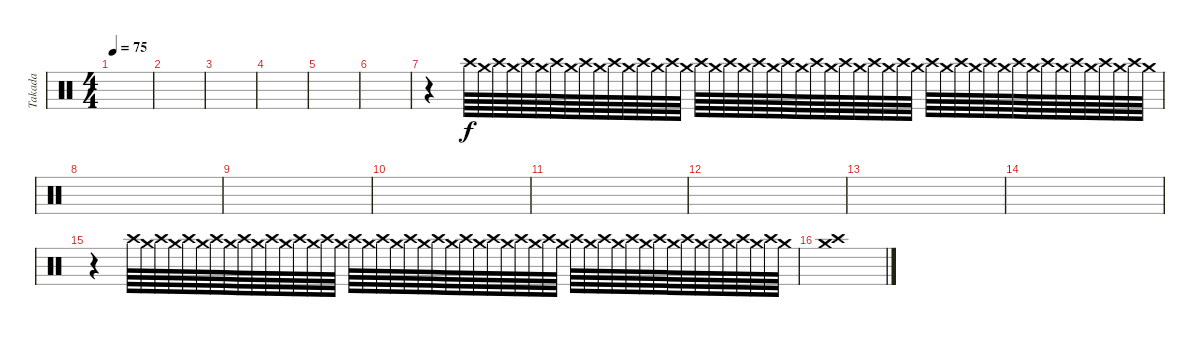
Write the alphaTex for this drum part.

\track ("Takada" "Takada") {instrument percussion}
\staff {score}
\articulation defaults
\ts (4 4)
\tempo 75
\clef neutral
\ks c
|
|
|
|
|
|
r.4{volume 0} "Crash high (hit)".64{volume 8} "Crash medium (hit)".64 "Crash high (hit)".64 "Crash medium (hit)".64 "Crash high (hit)".64 "Crash medium (hit)".64 "Crash high (hit)".64 "Crash medium (hit)".64 "Crash high (hit)".64 "Crash medium (hit)".64 "Crash high (hit)".64 "Crash medium (hit)".64 "Crash high (hit)".64 "Crash medium (hit)".64 "Crash high (hit)".64 "Crash medium (hit)".64 "Crash high (hit)".64 "Crash medium (hit)".64 "Crash high (hit)".64 "Crash medium (hit)".64 "Crash high (hit)".64 "Crash medium (hit)".64 "Crash high (hit)".64 "Crash medium (hit)".64 "Crash high (hit)".64 "Crash medium (hit)".64 "Crash high (hit)".64 "Crash medium (hit)".64 "Crash high (hit)".64 "Crash medium (hit)".64 "Crash high (hit)".64 "Crash medium (hit)".64 "Crash high (hit)".64 "Crash medium (hit)".64 "Crash high (hit)".64 "Crash medium (hit)".64 "Crash high (hit)".64 "Crash medium (hit)".64 "Crash high (hit)".64 "Crash medium (hit)".64 "Crash high (hit)".64 "Crash medium (hit)".64 "Crash high (hit)".64 "Crash medium (hit)".64 "Crash high (hit)".64 "Crash medium (hit)".64 "Crash high (hit)".64 "Crash medium (hit)".64 |
|
|
|
|
|
|
|
r.4{volume 0} "Crash high (hit)".64{volume 8} "Crash medium (hit)".64 "Crash high (hit)".64 "Crash medium (hit)".64 "Crash high (hit)".64 "Crash medium (hit)".64 "Crash high (hit)".64 "Crash medium (hit)".64 "Crash high (hit)".64 "Crash medium (hit)".64 "Crash high (hit)".64 "Crash medium (hit)".64 "Crash high (hit)".64 "Crash medium (hit)".64 "Crash high (hit)".64 "Crash medium (hit)".64 "Crash high (hit)".64 "Crash medium (hit)".64 "Crash high (hit)".64 "Crash medium (hit)".64 "Crash high (hit)".64 "Crash medium (hit)".64 "Crash high (hit)".64 "Crash medium (hit)".64 "Crash high (hit)".64 "Crash medium (hit)".64 "Crash high (hit)".64 "Crash medium (hit)".64 "Crash high (hit)".64 "Crash medium (hit)".64 "Crash high (hit)".64 "Crash medium (hit)".64 "Crash high (hit)".64 "Crash medium (hit)".64 "Crash high (hit)".64 "Crash medium (hit)".64 "Crash high (hit)".64 "Crash medium (hit)".64 "Crash high (hit)".64 "Crash medium (hit)".64 "Crash high (hit)".64 "Crash medium (hit)".64 "Crash high (hit)".64 "Crash medium (hit)".64 "Crash high (hit)".64 "Crash medium (hit)".64 "Crash high (hit)".64 "Crash medium (hit)".64 |
("Crash medium (hit)" "Crash high (hit)").1{volume 14}
